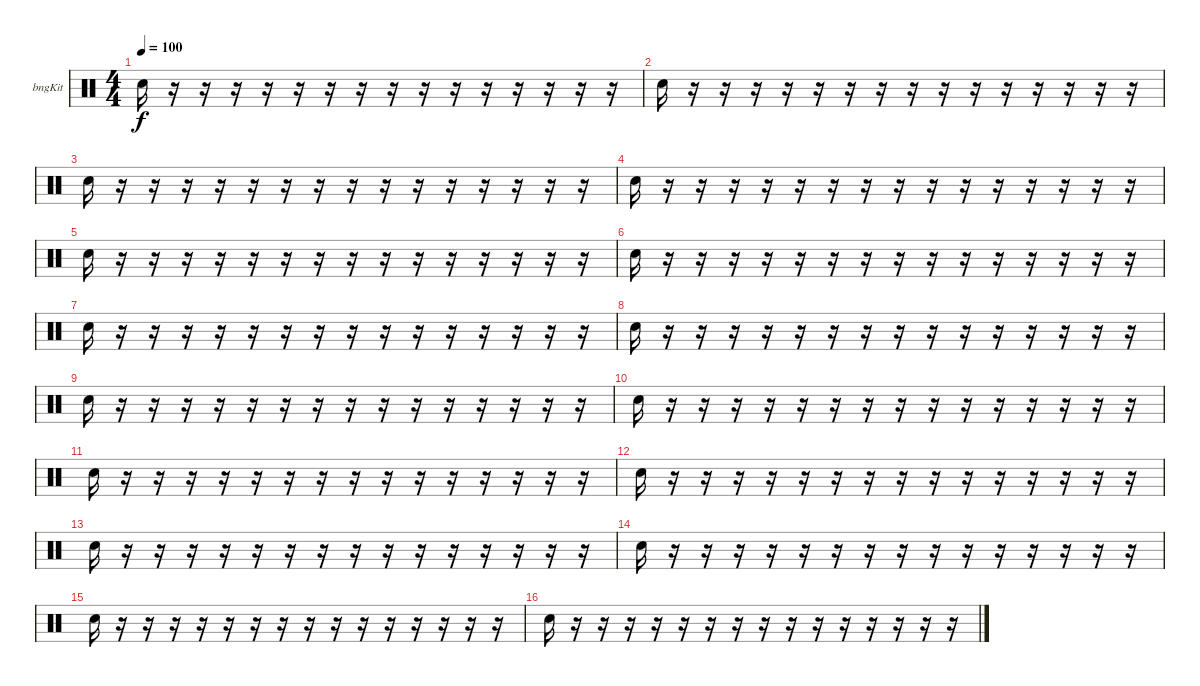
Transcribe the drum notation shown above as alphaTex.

\bracketExtendMode groupsimilarinstruments
\firstSystemTrackNameOrientation horizontal
\otherSystemsTrackNameOrientation horizontal
\track ("Bongos" "bngKit") {instrument percussion}
\staff {score}
\articulation defaults
\ts (4 4)
\tempo 100
\clef neutral
\ks c "Snare (hit) 2".16{dy f}
r.16 r.16 r.16 r.16 r.16 r.16 r.16 r.16 r.16 r.16 r.16 r.16 r.16 r.16 r.16 |
"Snare (hit) 2".16 r.16 r.16 r.16 r.16 r.16 r.16 r.16 r.16 r.16 r.16 r.16 r.16 r.16 r.16 r.16 |
"Snare (hit) 2".16 r.16 r.16 r.16 r.16 r.16 r.16 r.16 r.16 r.16 r.16 r.16 r.16 r.16 r.16 r.16 |
"Snare (hit) 2".16 r.16 r.16 r.16 r.16 r.16 r.16 r.16 r.16 r.16 r.16 r.16 r.16 r.16 r.16 r.16 |
"Snare (hit) 2".16 r.16 r.16 r.16 r.16 r.16 r.16 r.16 r.16 r.16 r.16 r.16 r.16 r.16 r.16 r.16 |
"Snare (hit) 2".16 r.16 r.16 r.16 r.16 r.16 r.16 r.16 r.16 r.16 r.16 r.16 r.16 r.16 r.16 r.16 |
"Snare (hit) 2".16 r.16 r.16 r.16 r.16 r.16 r.16 r.16 r.16 r.16 r.16 r.16 r.16 r.16 r.16 r.16 |
"Snare (hit) 2".16 r.16 r.16 r.16 r.16 r.16 r.16 r.16 r.16 r.16 r.16 r.16 r.16 r.16 r.16 r.16 |
"Snare (hit) 2".16 r.16 r.16 r.16 r.16 r.16 r.16 r.16 r.16 r.16 r.16 r.16 r.16 r.16 r.16 r.16 |
"Snare (hit) 2".16 r.16 r.16 r.16 r.16 r.16 r.16 r.16 r.16 r.16 r.16 r.16 r.16 r.16 r.16 r.16 |
"Snare (hit) 2".16 r.16 r.16 r.16 r.16 r.16 r.16 r.16 r.16 r.16 r.16 r.16 r.16 r.16 r.16 r.16 |
"Snare (hit) 2".16 r.16 r.16 r.16 r.16 r.16 r.16 r.16 r.16 r.16 r.16 r.16 r.16 r.16 r.16 r.16 |
"Snare (hit) 2".16 r.16 r.16 r.16 r.16 r.16 r.16 r.16 r.16 r.16 r.16 r.16 r.16 r.16 r.16 r.16 |
"Snare (hit) 2".16 r.16 r.16 r.16 r.16 r.16 r.16 r.16 r.16 r.16 r.16 r.16 r.16 r.16 r.16 r.16 |
"Snare (hit) 2".16 r.16 r.16 r.16 r.16 r.16 r.16 r.16 r.16 r.16 r.16 r.16 r.16 r.16 r.16 r.16 |
"Snare (hit) 2".16 r.16 r.16 r.16 r.16 r.16 r.16 r.16 r.16 r.16 r.16 r.16 r.16 r.16 r.16 r.16
